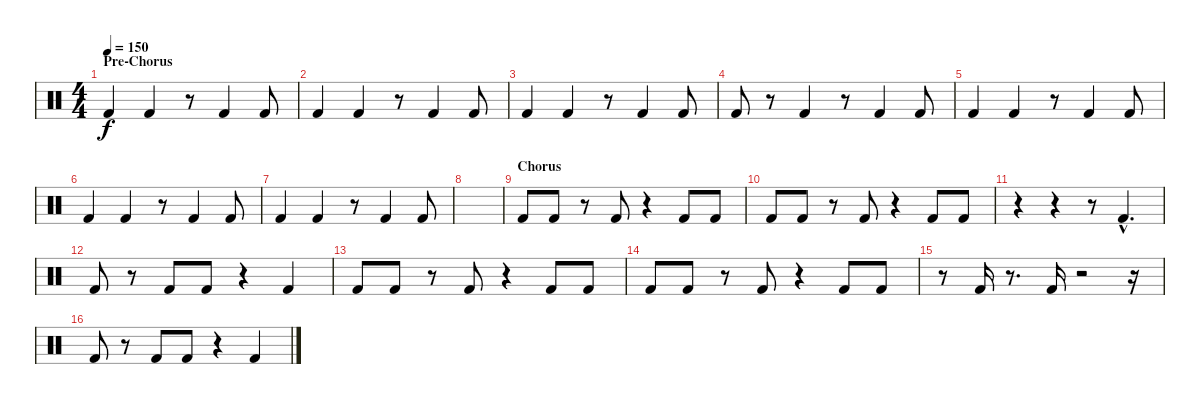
\track "" {instrument percussion}
\staff {score}
\articulation defaults
\ts (4 4)
\section ("" "Pre-Chorus")
\tempo 150
\clef neutral
\ks c "Kick (hit) 2".4{dy f} "Kick (hit) 2".4
r.8 "Kick (hit) 2".4 "Kick (hit) 2".8 |
"Kick (hit) 2".4 "Kick (hit) 2".4 r.8 "Kick (hit) 2".4 "Kick (hit) 2".8 |
"Kick (hit) 2".4 "Kick (hit) 2".4 r.8 "Kick (hit) 2".4 "Kick (hit) 2".8 |
"Kick (hit) 2".8 r.8 "Kick (hit) 2".4 r.8 "Kick (hit) 2".4 "Kick (hit) 2".8 |
"Kick (hit) 2".4 "Kick (hit) 2".4 r.8 "Kick (hit) 2".4 "Kick (hit) 2".8 |
"Kick (hit) 2".4 "Kick (hit) 2".4 r.8 "Kick (hit) 2".4 "Kick (hit) 2".8 |
"Kick (hit) 2".4 "Kick (hit) 2".4 r.8 "Kick (hit) 2".4 "Kick (hit) 2".8 |
|
\section ("" "Chorus")
"Kick (hit) 2".8 "Kick (hit) 2".8 r.8 "Kick (hit) 2".8 r.4 "Kick (hit) 2".8 "Kick (hit) 2".8 |
"Kick (hit) 2".8 "Kick (hit) 2".8 r.8 "Kick (hit) 2".8 r.4 "Kick (hit) 2".8 "Kick (hit) 2".8 |
r.4 r.4 r.8 "Kick (hit) 2"{hac}.4{d} |
"Kick (hit) 2".8 r.8 "Kick (hit) 2".8 "Kick (hit) 2".8 r.4 "Kick (hit) 2".4 |
"Kick (hit) 2".8 "Kick (hit) 2".8 r.8 "Kick (hit) 2".8 r.4 "Kick (hit) 2".8 "Kick (hit) 2".8 |
"Kick (hit) 2".8 "Kick (hit) 2".8 r.8 "Kick (hit) 2".8 r.4 "Kick (hit) 2".8 "Kick (hit) 2".8 |
r.8 "Kick (hit) 2".16 r.8{d} "Kick (hit) 2".16 r.2 r.16 |
"Kick (hit) 2".8 r.8 "Kick (hit) 2".8 "Kick (hit) 2".8 r.4 "Kick (hit) 2".4
